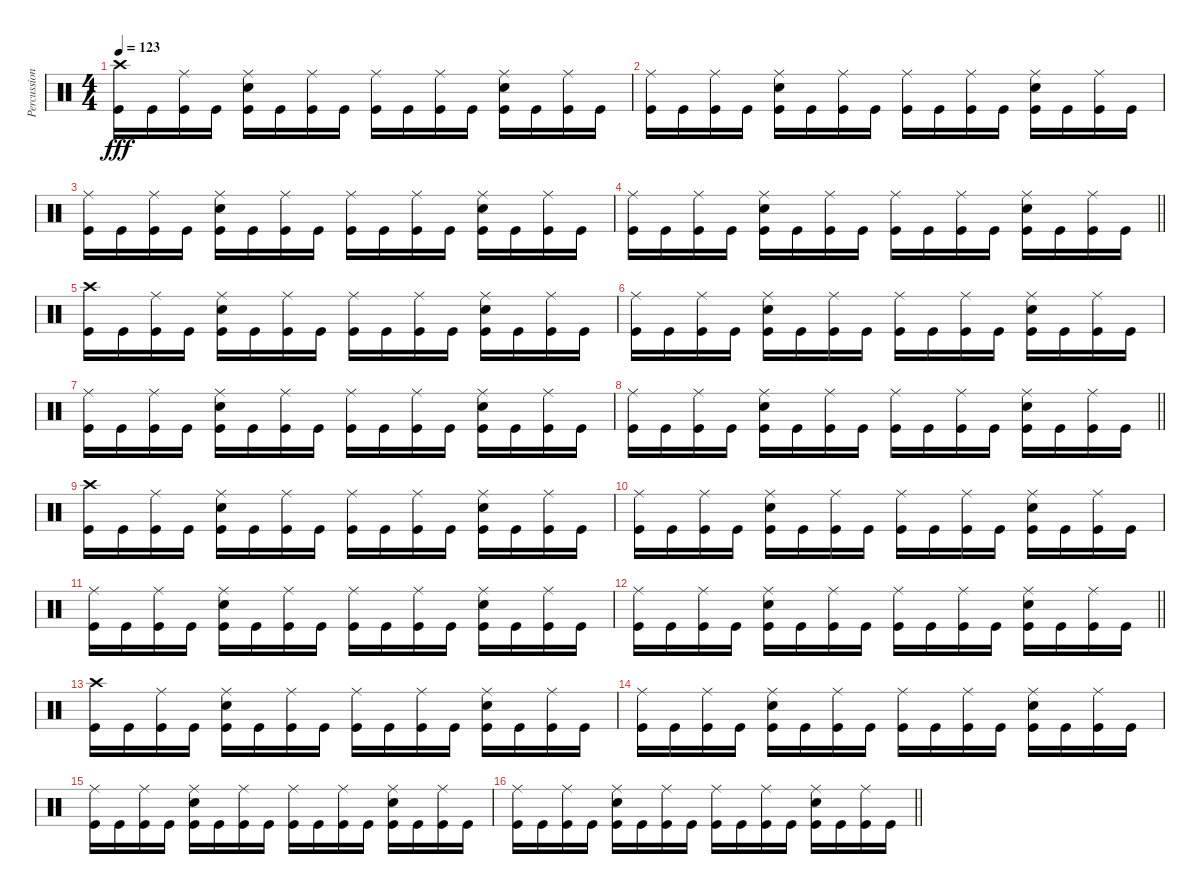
\track ("Percussion" "Percussion") {instrument percussion}
\staff {score}
\articulation defaults
\ts (4 4)
\section ("" "")
\tempo 123
\clef neutral
\ks c
("Crash high (hit)" "Kick (hit)").16{dy fff} "Kick (hit)".16 ("Ride (middle)" "Kick (hit)").16 "Kick (hit)".16 ("Ride (middle)" "Snare (hit) 2" "Kick (hit)").16 "Kick (hit)".16 ("Ride (middle)" "Kick (hit)").16 "Kick (hit)".16 ("Ride (middle)" "Kick (hit)").16 "Kick (hit)".16 ("Ride (middle)" "Kick (hit)").16 "Kick (hit)".16 ("Ride (middle)" "Snare (hit) 2" "Kick (hit)").16 "Kick (hit)".16 ("Ride (middle)" "Kick (hit)").16 "Kick (hit)".16 |
("Ride (middle)" "Kick (hit)").16 "Kick (hit)".16 ("Ride (middle)" "Kick (hit)").16 "Kick (hit)".16 ("Ride (middle)" "Snare (hit) 2" "Kick (hit)").16 "Kick (hit)".16 ("Ride (middle)" "Kick (hit)").16 "Kick (hit)".16 ("Ride (middle)" "Kick (hit)").16 "Kick (hit)".16 ("Ride (middle)" "Kick (hit)").16 "Kick (hit)".16 ("Ride (middle)" "Snare (hit) 2" "Kick (hit)").16 "Kick (hit)".16 ("Ride (middle)" "Kick (hit)").16 "Kick (hit)".16 |
("Ride (middle)" "Kick (hit)").16 "Kick (hit)".16 ("Ride (middle)" "Kick (hit)").16 "Kick (hit)".16 ("Ride (middle)" "Snare (hit) 2" "Kick (hit)").16 "Kick (hit)".16 ("Ride (middle)" "Kick (hit)").16 "Kick (hit)".16 ("Ride (middle)" "Kick (hit)").16 "Kick (hit)".16 ("Ride (middle)" "Kick (hit)").16 "Kick (hit)".16 ("Ride (middle)" "Snare (hit) 2" "Kick (hit)").16 "Kick (hit)".16 ("Ride (middle)" "Kick (hit)").16 "Kick (hit)".16 |
\barLineRight lightlight
("Ride (middle)" "Kick (hit)").16 "Kick (hit)".16 ("Ride (middle)" "Kick (hit)").16 "Kick (hit)".16 ("Ride (middle)" "Snare (hit) 2" "Kick (hit)").16 "Kick (hit)".16 ("Ride (middle)" "Kick (hit)").16 "Kick (hit)".16 ("Ride (middle)" "Kick (hit)").16 "Kick (hit)".16 ("Ride (middle)" "Kick (hit)").16 "Kick (hit)".16 ("Ride (middle)" "Snare (hit) 2" "Kick (hit)").16 "Kick (hit)".16 ("Ride (middle)" "Kick (hit)").16 "Kick (hit)".16 |
\section ("" "")
("Crash high (hit)" "Kick (hit)").16 "Kick (hit)".16 ("Ride (middle)" "Kick (hit)").16 "Kick (hit)".16 ("Ride (middle)" "Snare (hit) 2" "Kick (hit)").16 "Kick (hit)".16 ("Ride (middle)" "Kick (hit)").16 "Kick (hit)".16 ("Ride (middle)" "Kick (hit)").16 "Kick (hit)".16 ("Ride (middle)" "Kick (hit)").16 "Kick (hit)".16 ("Ride (middle)" "Snare (hit) 2" "Kick (hit)").16 "Kick (hit)".16 ("Ride (middle)" "Kick (hit)").16 "Kick (hit)".16 |
("Ride (middle)" "Kick (hit)").16 "Kick (hit)".16 ("Ride (middle)" "Kick (hit)").16 "Kick (hit)".16 ("Ride (middle)" "Snare (hit) 2" "Kick (hit)").16 "Kick (hit)".16 ("Ride (middle)" "Kick (hit)").16 "Kick (hit)".16 ("Ride (middle)" "Kick (hit)").16 "Kick (hit)".16 ("Ride (middle)" "Kick (hit)").16 "Kick (hit)".16 ("Ride (middle)" "Snare (hit) 2" "Kick (hit)").16 "Kick (hit)".16 ("Ride (middle)" "Kick (hit)").16 "Kick (hit)".16 |
("Ride (middle)" "Kick (hit)").16 "Kick (hit)".16 ("Ride (middle)" "Kick (hit)").16 "Kick (hit)".16 ("Ride (middle)" "Snare (hit) 2" "Kick (hit)").16 "Kick (hit)".16 ("Ride (middle)" "Kick (hit)").16 "Kick (hit)".16 ("Ride (middle)" "Kick (hit)").16 "Kick (hit)".16 ("Ride (middle)" "Kick (hit)").16 "Kick (hit)".16 ("Ride (middle)" "Snare (hit) 2" "Kick (hit)").16 "Kick (hit)".16 ("Ride (middle)" "Kick (hit)").16 "Kick (hit)".16 |
\barLineRight lightlight
("Ride (middle)" "Kick (hit)").16 "Kick (hit)".16 ("Ride (middle)" "Kick (hit)").16 "Kick (hit)".16 ("Ride (middle)" "Snare (hit) 2" "Kick (hit)").16 "Kick (hit)".16 ("Ride (middle)" "Kick (hit)").16 "Kick (hit)".16 ("Ride (middle)" "Kick (hit)").16 "Kick (hit)".16 ("Ride (middle)" "Kick (hit)").16 "Kick (hit)".16 ("Ride (middle)" "Snare (hit) 2" "Kick (hit)").16 "Kick (hit)".16 ("Ride (middle)" "Kick (hit)").16 "Kick (hit)".16 |
\section ("" "")
("Crash high (hit)" "Kick (hit)").16 "Kick (hit)".16 ("Ride (middle)" "Kick (hit)").16 "Kick (hit)".16 ("Ride (middle)" "Snare (hit) 2" "Kick (hit)").16 "Kick (hit)".16 ("Ride (middle)" "Kick (hit)").16 "Kick (hit)".16 ("Ride (middle)" "Kick (hit)").16 "Kick (hit)".16 ("Ride (middle)" "Kick (hit)").16 "Kick (hit)".16 ("Ride (middle)" "Snare (hit) 2" "Kick (hit)").16 "Kick (hit)".16 ("Ride (middle)" "Kick (hit)").16 "Kick (hit)".16 |
("Ride (middle)" "Kick (hit)").16 "Kick (hit)".16 ("Ride (middle)" "Kick (hit)").16 "Kick (hit)".16 ("Ride (middle)" "Snare (hit) 2" "Kick (hit)").16 "Kick (hit)".16 ("Ride (middle)" "Kick (hit)").16 "Kick (hit)".16 ("Ride (middle)" "Kick (hit)").16 "Kick (hit)".16 ("Ride (middle)" "Kick (hit)").16 "Kick (hit)".16 ("Ride (middle)" "Snare (hit) 2" "Kick (hit)").16 "Kick (hit)".16 ("Ride (middle)" "Kick (hit)").16 "Kick (hit)".16 |
("Ride (middle)" "Kick (hit)").16 "Kick (hit)".16 ("Ride (middle)" "Kick (hit)").16 "Kick (hit)".16 ("Ride (middle)" "Snare (hit) 2" "Kick (hit)").16 "Kick (hit)".16 ("Ride (middle)" "Kick (hit)").16 "Kick (hit)".16 ("Ride (middle)" "Kick (hit)").16 "Kick (hit)".16 ("Ride (middle)" "Kick (hit)").16 "Kick (hit)".16 ("Ride (middle)" "Snare (hit) 2" "Kick (hit)").16 "Kick (hit)".16 ("Ride (middle)" "Kick (hit)").16 "Kick (hit)".16 |
\barLineRight lightlight
("Ride (middle)" "Kick (hit)").16 "Kick (hit)".16 ("Ride (middle)" "Kick (hit)").16 "Kick (hit)".16 ("Ride (middle)" "Snare (hit) 2" "Kick (hit)").16 "Kick (hit)".16 ("Ride (middle)" "Kick (hit)").16 "Kick (hit)".16 ("Ride (middle)" "Kick (hit)").16 "Kick (hit)".16 ("Ride (middle)" "Kick (hit)").16 "Kick (hit)".16 ("Ride (middle)" "Snare (hit) 2" "Kick (hit)").16 "Kick (hit)".16 ("Ride (middle)" "Kick (hit)").16 "Kick (hit)".16 |
\section ("" "")
("Crash high (hit)" "Kick (hit)").16 "Kick (hit)".16 ("Ride (middle)" "Kick (hit)").16 "Kick (hit)".16 ("Ride (middle)" "Snare (hit) 2" "Kick (hit)").16 "Kick (hit)".16 ("Ride (middle)" "Kick (hit)").16 "Kick (hit)".16 ("Ride (middle)" "Kick (hit)").16 "Kick (hit)".16 ("Ride (middle)" "Kick (hit)").16 "Kick (hit)".16 ("Ride (middle)" "Snare (hit) 2" "Kick (hit)").16 "Kick (hit)".16 ("Ride (middle)" "Kick (hit)").16 "Kick (hit)".16 |
("Ride (middle)" "Kick (hit)").16 "Kick (hit)".16 ("Ride (middle)" "Kick (hit)").16 "Kick (hit)".16 ("Ride (middle)" "Snare (hit) 2" "Kick (hit)").16 "Kick (hit)".16 ("Ride (middle)" "Kick (hit)").16 "Kick (hit)".16 ("Ride (middle)" "Kick (hit)").16 "Kick (hit)".16 ("Ride (middle)" "Kick (hit)").16 "Kick (hit)".16 ("Ride (middle)" "Snare (hit) 2" "Kick (hit)").16 "Kick (hit)".16 ("Ride (middle)" "Kick (hit)").16 "Kick (hit)".16 |
("Ride (middle)" "Kick (hit)").16 "Kick (hit)".16 ("Ride (middle)" "Kick (hit)").16 "Kick (hit)".16 ("Ride (middle)" "Snare (hit) 2" "Kick (hit)").16 "Kick (hit)".16 ("Ride (middle)" "Kick (hit)").16 "Kick (hit)".16 ("Ride (middle)" "Kick (hit)").16 "Kick (hit)".16 ("Ride (middle)" "Kick (hit)").16 "Kick (hit)".16 ("Ride (middle)" "Snare (hit) 2" "Kick (hit)").16 "Kick (hit)".16 ("Ride (middle)" "Kick (hit)").16 "Kick (hit)".16 |
\barLineRight lightlight
("Ride (middle)" "Kick (hit)").16 "Kick (hit)".16 ("Ride (middle)" "Kick (hit)").16 "Kick (hit)".16 ("Ride (middle)" "Snare (hit) 2" "Kick (hit)").16 "Kick (hit)".16 ("Ride (middle)" "Kick (hit)").16 "Kick (hit)".16 ("Ride (middle)" "Kick (hit)").16 "Kick (hit)".16 ("Ride (middle)" "Kick (hit)").16 "Kick (hit)".16 ("Ride (middle)" "Snare (hit) 2" "Kick (hit)").16 "Kick (hit)".16 ("Ride (middle)" "Kick (hit)").16 "Kick (hit)".16
